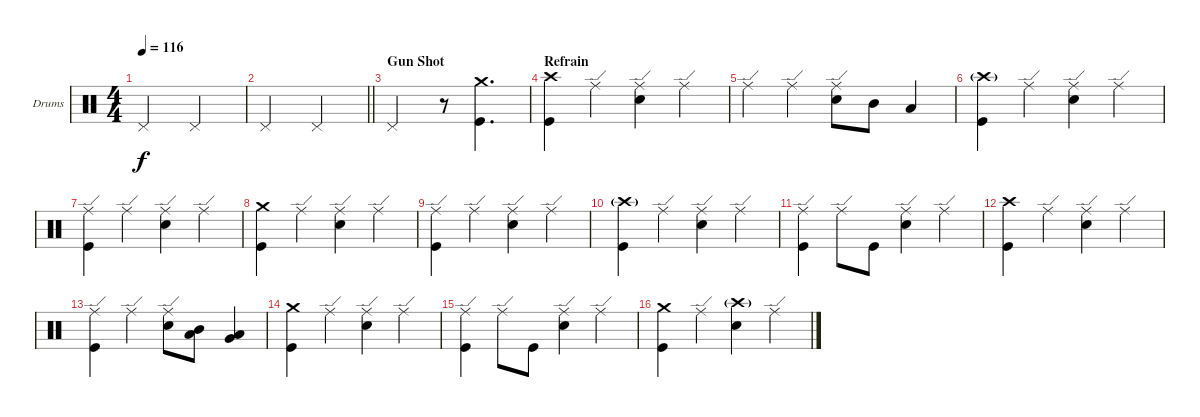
\bracketExtendMode groupsimilarinstruments
\firstSystemTrackNameOrientation horizontal
\otherSystemsTrackNameOrientation horizontal
\track ("Nick Mason" "Drums") {multiBarRest instrument percussion}
\staff {score}
\articulation defaults
\ts (4 4)
\tempo 116
\clef neutral
\ks c "Pedal Hi-Hat (hit)".2{dy f} "Pedal Hi-Hat (hit)".2
|
\barLineRight lightlight "Pedal Hi-Hat (hit)".2 "Pedal Hi-Hat (hit)".2
|
\section ("" "Gun Shot")
"Pedal Hi-Hat (hit)".2 r.8 ("Crash medium (hit)" "Kick (hit)").4{d} |
\section ("" "Refrain")
("Crash high (hit)" "Kick (hit)").4 "Ride (edge)".4 ("Ride (edge)" "Snare (hit) 2").4 "Ride (edge)".4 |
"Ride (edge)".4 "Ride (edge)".4 ("Ride (edge)" "Snare (hit) 2").8 "Mid Tom (hit)".8 "Low Tom (hit)".4 |
("Crash high (hit)"{g} "Kick (hit)").4 "Ride (edge)".4 ("Ride (edge)" "Snare (hit) 2").4 "Ride (edge)".4 |
("Ride (edge)" "Kick (hit)").4 "Ride (edge)".4 ("Ride (edge)" "Snare (hit) 2").4 "Ride (edge)".4 |
("Crash medium (hit)" "Kick (hit)").4 "Ride (edge)".4 ("Ride (edge)" "Snare (hit) 2").4 "Ride (edge)".4 |
("Ride (edge)" "Kick (hit)").4 "Ride (edge)".4 ("Ride (edge)" "Snare (hit) 2").4 "Ride (edge)".4 |
("Crash high (hit)"{g} "Kick (hit)").4 "Ride (edge)".4 ("Ride (edge)" "Snare (hit) 2").4 "Ride (edge)".4 |
("Ride (edge)" "Kick (hit)").4 "Ride (edge)".8 "Kick (hit)".8 ("Ride (edge)" "Snare (hit) 2").4 "Ride (edge)".4 |
("Crash high (hit)" "Kick (hit)").4 "Ride (edge)".4 ("Ride (edge)" "Snare (hit) 2").4 "Ride (edge)".4 |
("Ride (edge)" "Kick (hit)").4 "Ride (edge)".4 ("Ride (edge)" "Snare (hit) 2").8 ("Mid Tom (hit)" "Low Tom (hit)").8 ("Low Tom (hit)" "Very Low Tom (hit)").4 |
("Crash medium (hit)" "Kick (hit)").4 "Ride (edge)".4 ("Ride (edge)" "Snare (hit) 2").4 "Ride (edge)".4 |
("Ride (edge)" "Kick (hit)").4 "Ride (edge)".8 "Kick (hit)".8 ("Ride (edge)" "Snare (hit) 2").4 "Ride (edge)".4 |
("Crash medium (hit)" "Kick (hit)").4 "Ride (edge)".4 ("Crash high (hit)"{g} "Snare (hit) 2").4 "Ride (edge)".4
